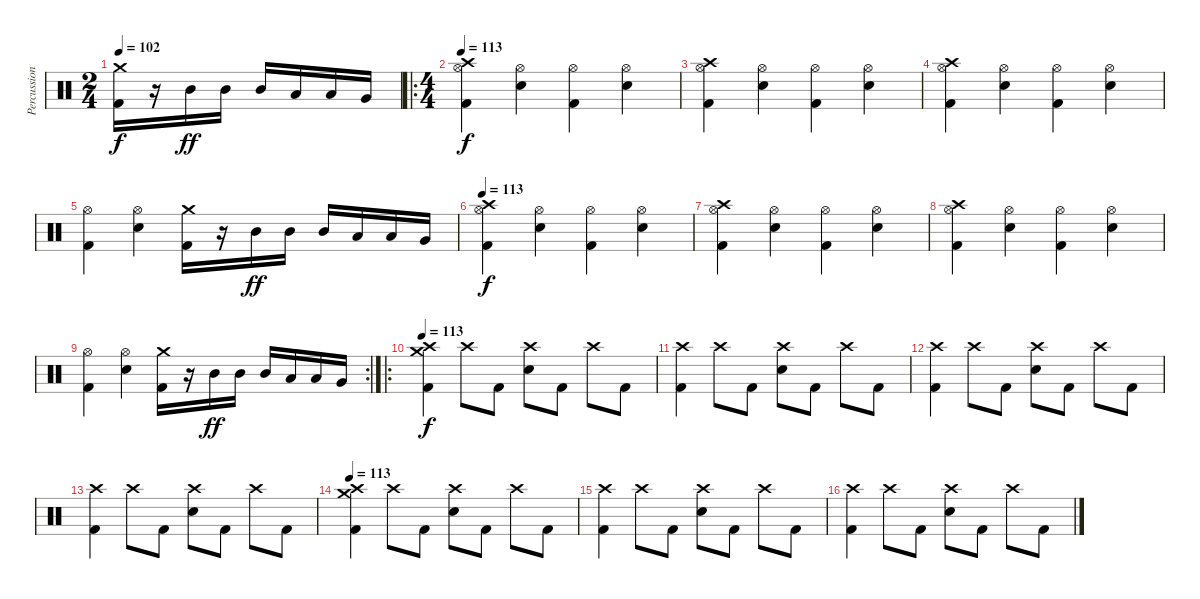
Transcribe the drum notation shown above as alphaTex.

\track ("Percussion" "Percussion") {instrument percussion}
\staff {score}
\articulation defaults
\ts (2 4)
\tempo 102
\clef neutral
\ks c
("Kick (hit) 2" "Crash medium (hit)").16{dy f} r.16 "Mid Tom (hit)".16{dy ff} "Mid Tom (hit)".16 "Mid Tom (hit)".16 "Low Tom (hit)".16 "Low Tom (hit)".16 "Very Low Tom (hit)".16 |
\ro
\ts (4 4)
\tempo 113
("Kick (hit) 2" "Crash high (hit)" "Hi-Hat (open)").4{dy f} ("Hi-Hat (open)" "Snare (hit) 2").4 ("Kick (hit) 2" "Hi-Hat (open)").4 ("Hi-Hat (open)" "Snare (hit) 2").4 |
("Kick (hit) 2" "Crash high (hit)" "Hi-Hat (open)").4 ("Hi-Hat (open)" "Snare (hit) 2").4 ("Kick (hit) 2" "Hi-Hat (open)").4 ("Hi-Hat (open)" "Snare (hit) 2").4 |
("Kick (hit) 2" "Crash high (hit)" "Hi-Hat (open)").4 ("Hi-Hat (open)" "Snare (hit) 2").4 ("Kick (hit) 2" "Hi-Hat (open)").4 ("Hi-Hat (open)" "Snare (hit) 2").4 |
("Kick (hit) 2" "Hi-Hat (open)").4 ("Hi-Hat (open)" "Snare (hit) 2").4 ("Kick (hit) 2" "Crash medium (hit)").16 r.16 "Mid Tom (hit)".16{dy ff} "Mid Tom (hit)".16 "Mid Tom (hit)".16 "Low Tom (hit)".16 "Low Tom (hit)".16 "Very Low Tom (hit)".16 |
\tempo 113
("Kick (hit) 2" "Crash high (hit)" "Hi-Hat (open)").4{dy f} ("Hi-Hat (open)" "Snare (hit) 2").4 ("Kick (hit) 2" "Hi-Hat (open)").4 ("Hi-Hat (open)" "Snare (hit) 2").4 |
("Kick (hit) 2" "Crash high (hit)" "Hi-Hat (open)").4 ("Hi-Hat (open)" "Snare (hit) 2").4 ("Kick (hit) 2" "Hi-Hat (open)").4 ("Hi-Hat (open)" "Snare (hit) 2").4 |
("Kick (hit) 2" "Crash high (hit)" "Hi-Hat (open)").4 ("Hi-Hat (open)" "Snare (hit) 2").4 ("Kick (hit) 2" "Hi-Hat (open)").4 ("Hi-Hat (open)" "Snare (hit) 2").4 |
\rc 2
("Kick (hit) 2" "Hi-Hat (open)").4 ("Hi-Hat (open)" "Snare (hit) 2").4 ("Kick (hit) 2" "Crash medium (hit)").16 r.16 "Mid Tom (hit)".16{dy ff} "Mid Tom (hit)".16 "Mid Tom (hit)".16 "Low Tom (hit)".16 "Low Tom (hit)".16 "Very Low Tom (hit)".16 |
\ro
\tempo 113
("Kick (hit) 2" "Crash high (hit)" "Crash medium (hit)").4{dy f} "Crash high (hit)".8 "Kick (hit) 2".8 ("Crash high (hit)" "Snare (hit) 2").8 "Kick (hit) 2".8 "Crash high (hit)".8 "Kick (hit) 2".8 |
("Kick (hit) 2" "Crash high (hit)").4 "Crash high (hit)".8 "Kick (hit) 2".8 ("Crash high (hit)" "Snare (hit) 2").8 "Kick (hit) 2".8 "Crash high (hit)".8 "Kick (hit) 2".8 |
("Kick (hit) 2" "Crash high (hit)").4 "Crash high (hit)".8 "Kick (hit) 2".8 ("Crash high (hit)" "Snare (hit) 2").8 "Kick (hit) 2".8 "Crash high (hit)".8 "Kick (hit) 2".8 |
("Kick (hit) 2" "Crash high (hit)").4 "Crash high (hit)".8 "Kick (hit) 2".8 ("Crash high (hit)" "Snare (hit) 2").8 "Kick (hit) 2".8 "Crash high (hit)".8 "Kick (hit) 2".8 |
\tempo 113
("Kick (hit) 2" "Crash high (hit)" "Crash medium (hit)").4 "Crash high (hit)".8 "Kick (hit) 2".8 ("Crash high (hit)" "Snare (hit) 2").8 "Kick (hit) 2".8 "Crash high (hit)".8 "Kick (hit) 2".8 |
("Kick (hit) 2" "Crash high (hit)").4 "Crash high (hit)".8 "Kick (hit) 2".8 ("Crash high (hit)" "Snare (hit) 2").8 "Kick (hit) 2".8 "Crash high (hit)".8 "Kick (hit) 2".8 |
("Kick (hit) 2" "Crash high (hit)").4 "Crash high (hit)".8 "Kick (hit) 2".8 ("Crash high (hit)" "Snare (hit) 2").8 "Kick (hit) 2".8 "Crash high (hit)".8 "Kick (hit) 2".8
